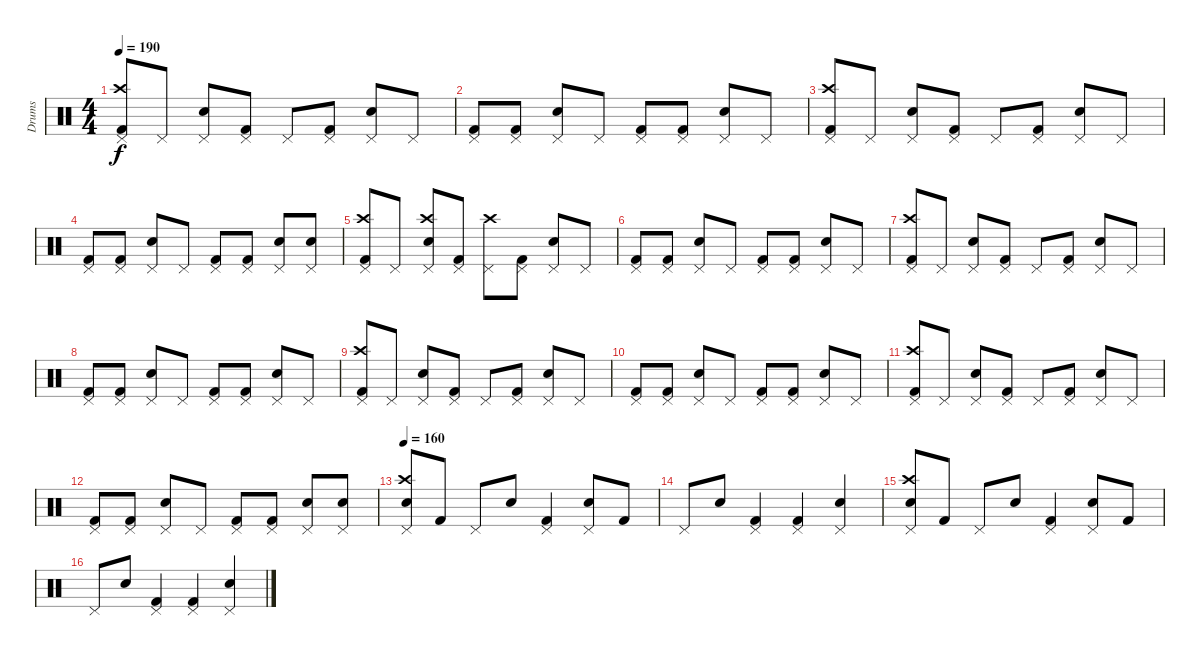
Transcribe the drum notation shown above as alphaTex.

\track ("Drums" "Drums") {instrument percussion}
\staff {score}
\articulation defaults
\ts (4 4)
\tempo 190
\clef neutral
\ks c
("Pedal Hi-Hat (hit)" "Crash high (hit)" "Kick (hit) 2").8{dy f} "Pedal Hi-Hat (hit)".8 ("Pedal Hi-Hat (hit)" "Snare (hit) 2").8 ("Pedal Hi-Hat (hit)" "Kick (hit) 2").8 "Pedal Hi-Hat (hit)".8 ("Pedal Hi-Hat (hit)" "Kick (hit) 2").8 ("Pedal Hi-Hat (hit)" "Snare (hit) 2").8 "Pedal Hi-Hat (hit)".8 |
("Pedal Hi-Hat (hit)" "Kick (hit) 2").8 ("Pedal Hi-Hat (hit)" "Kick (hit) 2").8 ("Pedal Hi-Hat (hit)" "Snare (hit) 2").8 "Pedal Hi-Hat (hit)".8 ("Pedal Hi-Hat (hit)" "Kick (hit) 2").8 ("Pedal Hi-Hat (hit)" "Kick (hit) 2").8 ("Pedal Hi-Hat (hit)" "Snare (hit) 2").8 "Pedal Hi-Hat (hit)".8 |
("Pedal Hi-Hat (hit)" "Crash high (hit)" "Kick (hit) 2").8 "Pedal Hi-Hat (hit)".8 ("Pedal Hi-Hat (hit)" "Snare (hit) 2").8 ("Pedal Hi-Hat (hit)" "Kick (hit) 2").8 "Pedal Hi-Hat (hit)".8 ("Pedal Hi-Hat (hit)" "Kick (hit) 2").8 ("Pedal Hi-Hat (hit)" "Snare (hit) 2").8 "Pedal Hi-Hat (hit)".8 |
("Pedal Hi-Hat (hit)" "Kick (hit) 2").8 ("Pedal Hi-Hat (hit)" "Kick (hit) 2").8 ("Pedal Hi-Hat (hit)" "Snare (hit) 2").8 "Pedal Hi-Hat (hit)".8 ("Pedal Hi-Hat (hit)" "Kick (hit) 2").8 ("Pedal Hi-Hat (hit)" "Kick (hit) 2").8 ("Pedal Hi-Hat (hit)" "Snare (hit) 2").8 ("Pedal Hi-Hat (hit)" "Snare (hit) 2").8 |
("Pedal Hi-Hat (hit)" "Crash high (hit)" "Kick (hit) 2").8 "Pedal Hi-Hat (hit)".8 ("Pedal Hi-Hat (hit)" "Crash high (hit)" "Snare (hit) 2").8 ("Pedal Hi-Hat (hit)" "Kick (hit) 2").8 ("Pedal Hi-Hat (hit)" "Crash high (hit)").8 ("Pedal Hi-Hat (hit)" "Kick (hit) 2").8 ("Pedal Hi-Hat (hit)" "Snare (hit) 2").8 "Pedal Hi-Hat (hit)".8 |
("Pedal Hi-Hat (hit)" "Kick (hit) 2").8 ("Pedal Hi-Hat (hit)" "Kick (hit) 2").8 ("Pedal Hi-Hat (hit)" "Snare (hit) 2").8 "Pedal Hi-Hat (hit)".8 ("Pedal Hi-Hat (hit)" "Kick (hit) 2").8 ("Pedal Hi-Hat (hit)" "Kick (hit) 2").8 ("Pedal Hi-Hat (hit)" "Snare (hit) 2").8 "Pedal Hi-Hat (hit)".8 |
("Pedal Hi-Hat (hit)" "Crash high (hit)" "Kick (hit) 2").8 "Pedal Hi-Hat (hit)".8 ("Pedal Hi-Hat (hit)" "Snare (hit) 2").8 ("Pedal Hi-Hat (hit)" "Kick (hit) 2").8 "Pedal Hi-Hat (hit)".8 ("Pedal Hi-Hat (hit)" "Kick (hit) 2").8 ("Pedal Hi-Hat (hit)" "Snare (hit) 2").8 "Pedal Hi-Hat (hit)".8 |
("Pedal Hi-Hat (hit)" "Kick (hit) 2").8 ("Pedal Hi-Hat (hit)" "Kick (hit) 2").8 ("Pedal Hi-Hat (hit)" "Snare (hit) 2").8 "Pedal Hi-Hat (hit)".8 ("Pedal Hi-Hat (hit)" "Kick (hit) 2").8 ("Pedal Hi-Hat (hit)" "Kick (hit) 2").8 ("Pedal Hi-Hat (hit)" "Snare (hit) 2").8 "Pedal Hi-Hat (hit)".8 |
("Pedal Hi-Hat (hit)" "Crash high (hit)" "Kick (hit) 2").8 "Pedal Hi-Hat (hit)".8 ("Pedal Hi-Hat (hit)" "Snare (hit) 2").8 ("Pedal Hi-Hat (hit)" "Kick (hit) 2").8 "Pedal Hi-Hat (hit)".8 ("Pedal Hi-Hat (hit)" "Kick (hit) 2").8 ("Pedal Hi-Hat (hit)" "Snare (hit) 2").8 "Pedal Hi-Hat (hit)".8 |
("Pedal Hi-Hat (hit)" "Kick (hit) 2").8 ("Pedal Hi-Hat (hit)" "Kick (hit) 2").8 ("Pedal Hi-Hat (hit)" "Snare (hit) 2").8 "Pedal Hi-Hat (hit)".8 ("Pedal Hi-Hat (hit)" "Kick (hit) 2").8 ("Pedal Hi-Hat (hit)" "Kick (hit) 2").8 ("Pedal Hi-Hat (hit)" "Snare (hit) 2").8 "Pedal Hi-Hat (hit)".8 |
("Pedal Hi-Hat (hit)" "Crash high (hit)" "Kick (hit) 2").8 "Pedal Hi-Hat (hit)".8 ("Pedal Hi-Hat (hit)" "Snare (hit) 2").8 ("Pedal Hi-Hat (hit)" "Kick (hit) 2").8 "Pedal Hi-Hat (hit)".8 ("Pedal Hi-Hat (hit)" "Kick (hit) 2").8 ("Pedal Hi-Hat (hit)" "Snare (hit) 2").8 "Pedal Hi-Hat (hit)".8 |
("Pedal Hi-Hat (hit)" "Kick (hit) 2").8 ("Pedal Hi-Hat (hit)" "Kick (hit) 2").8 ("Pedal Hi-Hat (hit)" "Snare (hit) 2").8 "Pedal Hi-Hat (hit)".8 ("Pedal Hi-Hat (hit)" "Kick (hit) 2").8 ("Pedal Hi-Hat (hit)" "Kick (hit) 2").8 ("Pedal Hi-Hat (hit)" "Snare (hit) 2").8 ("Pedal Hi-Hat (hit)" "Snare (hit) 2").8 |
\tempo 160
("Pedal Hi-Hat (hit)" "Crash high (hit)" "Snare (hit) 2").8 "Kick (hit) 2".8 "Pedal Hi-Hat (hit)".8 "Snare (hit) 2".8 ("Pedal Hi-Hat (hit)" "Kick (hit) 2").4 ("Pedal Hi-Hat (hit)" "Snare (hit) 2").8 "Kick (hit) 2".8 |
"Pedal Hi-Hat (hit)".8 "Snare (hit) 2".8 ("Pedal Hi-Hat (hit)" "Kick (hit) 2").4 ("Pedal Hi-Hat (hit)" "Kick (hit) 2").4 ("Pedal Hi-Hat (hit)" "Snare (hit) 2").4 |
("Pedal Hi-Hat (hit)" "Crash high (hit)" "Snare (hit) 2").8 "Kick (hit) 2".8 "Pedal Hi-Hat (hit)".8 "Snare (hit) 2".8 ("Pedal Hi-Hat (hit)" "Kick (hit) 2").4 ("Pedal Hi-Hat (hit)" "Snare (hit) 2").8 "Kick (hit) 2".8 |
"Pedal Hi-Hat (hit)".8 "Snare (hit) 2".8 ("Pedal Hi-Hat (hit)" "Kick (hit) 2").4 ("Pedal Hi-Hat (hit)" "Kick (hit) 2").4 ("Pedal Hi-Hat (hit)" "Snare (hit) 2").4
